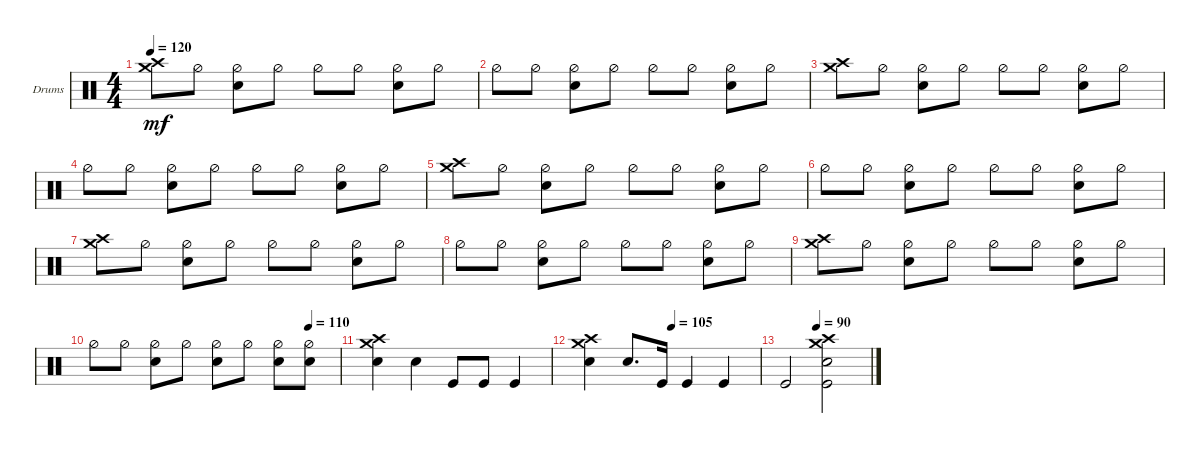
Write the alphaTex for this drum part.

\defaultSystemsLayout 4
\bracketExtendMode groupsimilarinstruments
\firstSystemTrackNameOrientation horizontal
\otherSystemsTrackNameOrientation horizontal
\track ("Drums" "Drums") {instrument percussion}
\staff {score}
\articulation defaults
\ts (4 4)
\tempo 120
\clef neutral
\ks c
("Crash high (hit)" "Crash medium (hit)").8{dy mf} "Hi-Hat (half)".8 ("Snare (hit) 2" "Hi-Hat (half)").8 "Hi-Hat (half)".8 "Hi-Hat (half)".8 "Hi-Hat (half)".8 ("Snare (hit) 2" "Hi-Hat (half)").8 "Hi-Hat (half)".8 |
"Hi-Hat (half)".8 "Hi-Hat (half)".8 ("Snare (hit) 2" "Hi-Hat (half)").8 "Hi-Hat (half)".8 "Hi-Hat (half)".8 "Hi-Hat (half)".8 ("Snare (hit) 2" "Hi-Hat (half)").8 "Hi-Hat (half)".8 |
("Crash medium (hit)" "Crash high (hit)").8 "Hi-Hat (half)".8 ("Snare (hit) 2" "Hi-Hat (half)").8 "Hi-Hat (half)".8 "Hi-Hat (half)".8 "Hi-Hat (half)".8 ("Snare (hit) 2" "Hi-Hat (half)").8 "Hi-Hat (half)".8 |
"Hi-Hat (half)".8 "Hi-Hat (half)".8 ("Snare (hit) 2" "Hi-Hat (half)").8 "Hi-Hat (half)".8 "Hi-Hat (half)".8 "Hi-Hat (half)".8 ("Snare (hit) 2" "Hi-Hat (half)").8 "Hi-Hat (half)".8 |
("Crash high (hit)" "Crash medium (hit)").8 "Hi-Hat (half)".8 ("Snare (hit) 2" "Hi-Hat (half)").8 "Hi-Hat (half)".8 "Hi-Hat (half)".8 "Hi-Hat (half)".8 ("Snare (hit) 2" "Hi-Hat (half)").8 "Hi-Hat (half)".8 |
"Hi-Hat (half)".8 "Hi-Hat (half)".8 ("Snare (hit) 2" "Hi-Hat (half)").8 "Hi-Hat (half)".8 "Hi-Hat (half)".8 "Hi-Hat (half)".8 ("Snare (hit) 2" "Hi-Hat (half)").8 "Hi-Hat (half)".8 |
("Crash high (hit)" "Crash medium (hit)").8 "Hi-Hat (half)".8 ("Snare (hit) 2" "Hi-Hat (half)").8 "Hi-Hat (half)".8 "Hi-Hat (half)".8 "Hi-Hat (half)".8 ("Snare (hit) 2" "Hi-Hat (half)").8 "Hi-Hat (half)".8 |
"Hi-Hat (half)".8 "Hi-Hat (half)".8 ("Snare (hit) 2" "Hi-Hat (half)").8 "Hi-Hat (half)".8 "Hi-Hat (half)".8 "Hi-Hat (half)".8 ("Snare (hit) 2" "Hi-Hat (half)").8 "Hi-Hat (half)".8 |
("Crash medium (hit)" "Crash high (hit)").8 "Hi-Hat (half)".8 ("Snare (hit) 2" "Hi-Hat (half)").8 "Hi-Hat (half)".8 "Hi-Hat (half)".8 "Hi-Hat (half)".8 ("Snare (hit) 2" "Hi-Hat (half)").8 "Hi-Hat (half)".8 |
\tempo (110 0.875)
"Hi-Hat (half)".8 "Hi-Hat (half)".8 ("Snare (hit) 2" "Hi-Hat (half)").8 "Hi-Hat (half)".8 ("Hi-Hat (half)" "Snare (hit) 2").8 "Hi-Hat (half)".8 ("Snare (hit) 2" "Hi-Hat (half)").8 ("Snare (hit) 2" "Hi-Hat (half)").8 |
("Snare (hit) 2" "Crash high (hit)" "Crash medium (hit)").4 "Snare (hit) 2".4 "Kick (hit)".8 "Kick (hit)".8 "Kick (hit)".4 |
\tempo (105 0.5)
("Snare (hit) 2" "Crash high (hit)" "Crash medium (hit)").4 "Snare (hit) 2".8{d} "Kick (hit)".16 "Kick (hit)".4 "Kick (hit)".4 |
\tempo (90 0.375)
"Kick (hit)".2 ("Snare (hit) 2" "Kick (hit)" "Crash high (hit)" "Crash medium (hit)").2
